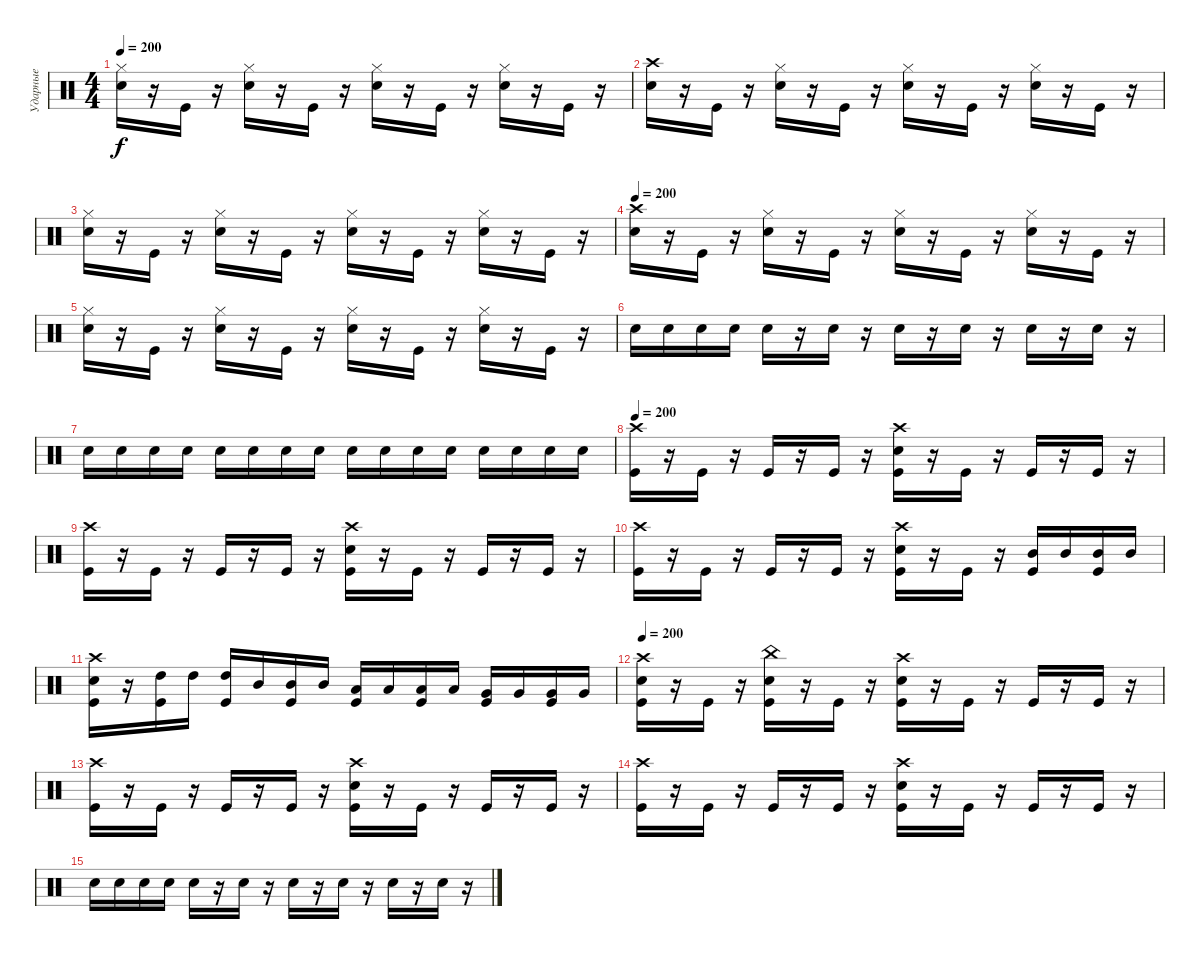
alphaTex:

\track ("Ударные" "Ударные") {instrument percussion}
\staff {score}
\articulation defaults
\ts (4 4)
\tempo 200
\clef neutral
\ks c
("Hi-Hat (closed)" "Electric Snare (hit)").16{dy f} r.16 "Kick (hit)".16 r.16 ("Hi-Hat (closed)" "Electric Snare (hit)").16 r.16 "Kick (hit)".16 r.16 ("Hi-Hat (closed)" "Electric Snare (hit)").16 r.16 "Kick (hit)".16 r.16 ("Hi-Hat (closed)" "Electric Snare (hit)").16 r.16 "Kick (hit)".16 r.16 |
("Crash high (hit)" "Electric Snare (hit)").16 r.16 "Kick (hit)".16 r.16 ("Hi-Hat (closed)" "Electric Snare (hit)").16 r.16 "Kick (hit)".16 r.16 ("Hi-Hat (closed)" "Electric Snare (hit)").16 r.16 "Kick (hit)".16 r.16 ("Hi-Hat (closed)" "Electric Snare (hit)").16 r.16 "Kick (hit)".16 r.16 |
("Hi-Hat (closed)" "Electric Snare (hit)").16 r.16 "Kick (hit)".16 r.16 ("Hi-Hat (closed)" "Electric Snare (hit)").16 r.16 "Kick (hit)".16 r.16 ("Hi-Hat (closed)" "Electric Snare (hit)").16 r.16 "Kick (hit)".16 r.16 ("Hi-Hat (closed)" "Electric Snare (hit)").16 r.16 "Kick (hit)".16 r.16 |
\tempo 200
("Crash high (hit)" "Electric Snare (hit)").16 r.16 "Kick (hit)".16 r.16 ("Hi-Hat (closed)" "Electric Snare (hit)").16 r.16 "Kick (hit)".16 r.16 ("Hi-Hat (closed)" "Electric Snare (hit)").16 r.16 "Kick (hit)".16 r.16 ("Hi-Hat (closed)" "Electric Snare (hit)").16 r.16 "Kick (hit)".16 r.16 |
("Hi-Hat (closed)" "Electric Snare (hit)").16 r.16 "Kick (hit)".16 r.16 ("Hi-Hat (closed)" "Electric Snare (hit)").16 r.16 "Kick (hit)".16 r.16 ("Hi-Hat (closed)" "Electric Snare (hit)").16 r.16 "Kick (hit)".16 r.16 ("Hi-Hat (closed)" "Electric Snare (hit)").16 r.16 "Kick (hit)".16 r.16 |
"Electric Snare (hit)".16 "Electric Snare (hit)".16 "Electric Snare (hit)".16 "Electric Snare (hit)".16 "Electric Snare (hit)".16 r.16 "Electric Snare (hit)".16 r.16 "Electric Snare (hit)".16 r.16 "Electric Snare (hit)".16 r.16 "Electric Snare (hit)".16 r.16 "Electric Snare (hit)".16 r.16 |
"Electric Snare (hit)".16 "Electric Snare (hit)".16 "Electric Snare (hit)".16 "Electric Snare (hit)".16 "Electric Snare (hit)".16 "Electric Snare (hit)".16 "Electric Snare (hit)".16 "Electric Snare (hit)".16 "Electric Snare (hit)".16 "Electric Snare (hit)".16 "Electric Snare (hit)".16 "Electric Snare (hit)".16 "Electric Snare (hit)".16 "Electric Snare (hit)".16 "Electric Snare (hit)".16 "Electric Snare (hit)".16 |
\tempo 200
("Crash high (hit)" "Kick (hit)").16 r.16 "Kick (hit)".16 r.16 "Kick (hit)".16 r.16 "Kick (hit)".16 r.16 ("Crash high (hit)" "Electric Snare (hit)" "Kick (hit)").16 r.16 "Kick (hit)".16 r.16 "Kick (hit)".16 r.16 "Kick (hit)".16 r.16 |
("Crash high (hit)" "Kick (hit)").16 r.16 "Kick (hit)".16 r.16 "Kick (hit)".16 r.16 "Kick (hit)".16 r.16 ("Crash high (hit)" "Electric Snare (hit)" "Kick (hit)").16 r.16 "Kick (hit)".16 r.16 "Kick (hit)".16 r.16 "Kick (hit)".16 r.16 |
("Crash high (hit)" "Kick (hit)").16 r.16 "Kick (hit)".16 r.16 "Kick (hit)".16 r.16 "Kick (hit)".16 r.16 ("Crash high (hit)" "Electric Snare (hit)" "Kick (hit)").16 r.16 "Kick (hit)".16 r.16 ("Mid Tom (hit)" "Kick (hit)").16 "Mid Tom (hit)".16 ("Mid Tom (hit)" "Kick (hit)").16 "Mid Tom (hit)".16 |
("Crash high (hit)" "Electric Snare (hit)" "Kick (hit)").16 r.16 ("High Tom (hit)" "Kick (hit)").16 "High Tom (hit)".16 ("High Tom (hit)" "Kick (hit)").16 "Mid Tom (hit)".16 ("Mid Tom (hit)" "Kick (hit)").16 "Mid Tom (hit)".16 ("Low Tom (hit)" "Kick (hit)").16 "Low Tom (hit)".16 ("Low Tom (hit)" "Kick (hit)").16 "Low Tom (hit)".16 ("Very Low Tom (hit)" "Kick (hit)").16 "Very Low Tom (hit)".16 ("Very Low Tom (hit)" "Kick (hit)").16 "Very Low Tom (hit)".16 |
\tempo 200
("Crash high (hit)" "Electric Snare (hit)" "Kick (hit)").16 r.16 "Kick (hit)".16 r.16 ("China (hit)" "Electric Snare (hit)" "Kick (hit)").16 r.16 "Kick (hit)".16 r.16 ("Crash high (hit)" "Electric Snare (hit)" "Kick (hit)").16 r.16 "Kick (hit)".16 r.16 "Kick (hit)".16 r.16 "Kick (hit)".16 r.16 |
("Crash high (hit)" "Kick (hit)").16 r.16 "Kick (hit)".16 r.16 "Kick (hit)".16 r.16 "Kick (hit)".16 r.16 ("Crash high (hit)" "Electric Snare (hit)" "Kick (hit)").16 r.16 "Kick (hit)".16 r.16 "Kick (hit)".16 r.16 "Kick (hit)".16 r.16 |
("Crash high (hit)" "Kick (hit)").16 r.16 "Kick (hit)".16 r.16 "Kick (hit)".16 r.16 "Kick (hit)".16 r.16 ("Crash high (hit)" "Electric Snare (hit)" "Kick (hit)").16 r.16 "Kick (hit)".16 r.16 "Kick (hit)".16 r.16 "Kick (hit)".16 r.16 |
"Electric Snare (hit)".16 "Electric Snare (hit)".16 "Electric Snare (hit)".16 "Electric Snare (hit)".16 "Electric Snare (hit)".16 r.16 "Electric Snare (hit)".16 r.16 "Electric Snare (hit)".16 r.16 "Electric Snare (hit)".16 r.16 "Electric Snare (hit)".16 r.16 "Electric Snare (hit)".16 r.16
